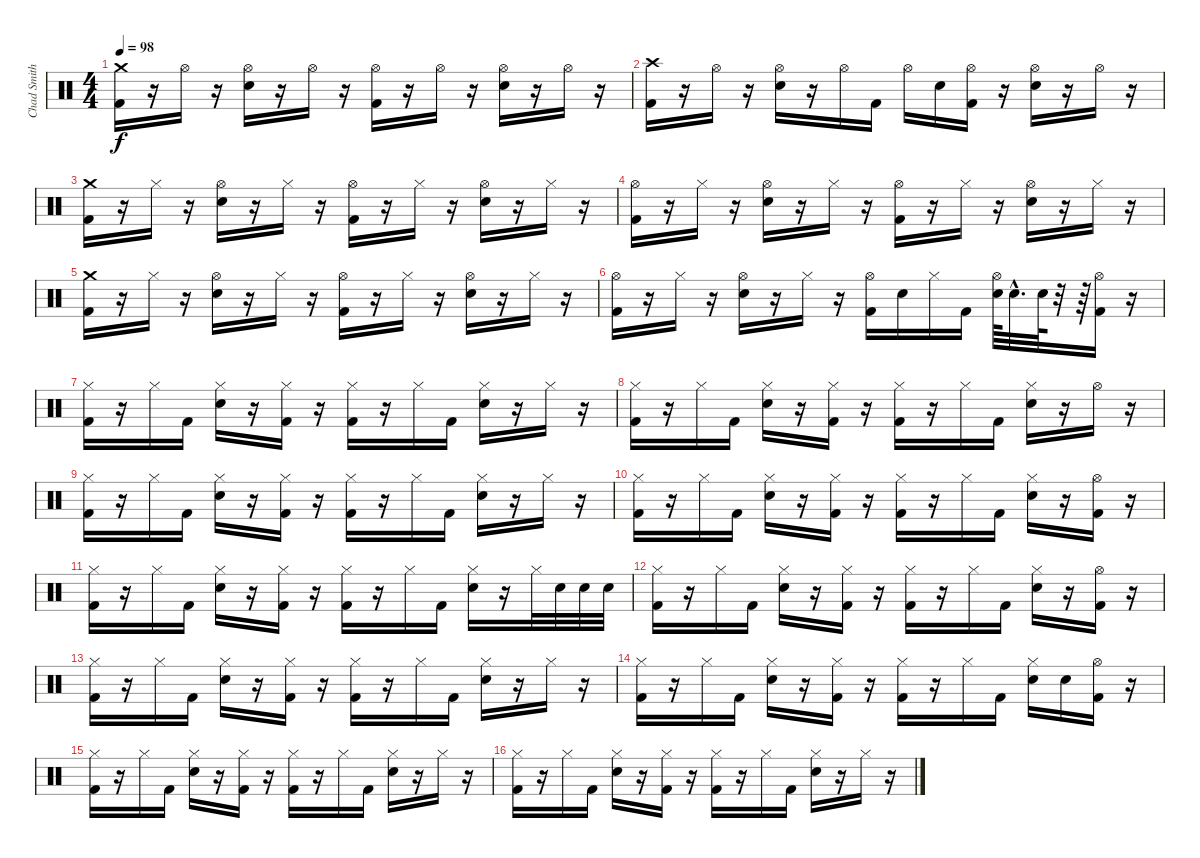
\track ("Chad Smith" "Chad Smith") {instrument percussion}
\staff {score}
\articulation defaults
\ts (4 4)
\tempo 98
\clef neutral
\ks c
("Kick (hit) 2" "Crash medium (hit)").16{dy f} r.16 "Hi-Hat (open)".16 r.16 ("Electric Snare (hit)" "Hi-Hat (open)").16 r.16 "Hi-Hat (open)".16 r.16 ("Kick (hit) 2" "Hi-Hat (open)").16 r.16 "Hi-Hat (open)".16 r.16 ("Hi-Hat (open)" "Electric Snare (hit)").16 r.16 "Hi-Hat (open)".16 r.16 |
("Crash high (hit)" "Kick (hit) 2").16 r.16 "Hi-Hat (open)".16 r.16 ("Hi-Hat (open)" "Electric Snare (hit)").16 r.16 "Hi-Hat (open)".16 "Kick (hit) 2".16 "Hi-Hat (open)".16 "Electric Snare (hit)".16 ("Hi-Hat (open)" "Kick (hit) 2").16 r.16 ("Hi-Hat (open)" "Electric Snare (hit)").16 r.16 "Hi-Hat (open)".16 r.16 |
("Kick (hit) 2" "Crash medium (hit)").16 r.16 "Hi-Hat (closed)".16 r.16 ("Electric Snare (hit)" "Hi-Hat (open)").16 r.16 "Hi-Hat (closed)".16 r.16 ("Kick (hit) 2" "Hi-Hat (open)").16 r.16 "Hi-Hat (closed)".16 r.16 ("Hi-Hat (open)" "Electric Snare (hit)").16 r.16 "Hi-Hat (closed)".16 r.16 |
("Hi-Hat (open)" "Kick (hit) 2").16 r.16 "Hi-Hat (closed)".16 r.16 ("Hi-Hat (open)" "Electric Snare (hit)").16 r.16 "Hi-Hat (closed)".16 r.16 ("Kick (hit) 2" "Hi-Hat (open)").16 r.16 "Hi-Hat (closed)".16 r.16 ("Hi-Hat (open)" "Electric Snare (hit)").16 r.16 "Hi-Hat (closed)".16 r.16 |
("Kick (hit) 2" "Crash medium (hit)").16 r.16 "Hi-Hat (closed)".16 r.16 ("Electric Snare (hit)" "Hi-Hat (open)").16 r.16 "Hi-Hat (closed)".16 r.16 ("Kick (hit) 2" "Hi-Hat (open)").16 r.16 "Hi-Hat (closed)".16 r.16 ("Hi-Hat (open)" "Electric Snare (hit)").16 r.16 "Hi-Hat (closed)".16 r.16 |
("Hi-Hat (open)" "Kick (hit) 2").16 r.16 "Hi-Hat (closed)".16 r.16 ("Hi-Hat (open)" "Electric Snare (hit)").16 r.16 "Hi-Hat (closed)".16 r.16 ("Kick (hit) 2" "Hi-Hat (open)").16 "Electric Snare (hit)".16 "Hi-Hat (closed)".16 "Kick (hit) 2".16 ("Hi-Hat (open)" "Electric Snare (hit)").64 "Electric Snare (hit)"{hac}.32{d} "Electric Snare (hit)".64 r.32 r.64 ("Kick (hit) 2" "Hi-Hat (open)").16 r.16 |
("Kick (hit) 2" "Hi-Hat (closed)").16 r.16 "Hi-Hat (closed)".16 "Kick (hit) 2".16 ("Electric Snare (hit)" "Hi-Hat (closed)").16 r.16 ("Kick (hit) 2" "Hi-Hat (closed)").16 r.16 ("Kick (hit) 2" "Hi-Hat (closed)").16 r.16 "Hi-Hat (closed)".16 "Kick (hit) 2".16 ("Electric Snare (hit)" "Hi-Hat (closed)").16 r.16 "Hi-Hat (closed)".16 r.16 |
("Hi-Hat (closed)" "Kick (hit) 2").16 r.16 "Hi-Hat (closed)".16 "Kick (hit) 2".16 ("Electric Snare (hit)" "Hi-Hat (closed)").16 r.16 ("Kick (hit) 2" "Hi-Hat (closed)").16 r.16 ("Kick (hit) 2" "Hi-Hat (closed)").16 r.16 "Hi-Hat (closed)".16 "Kick (hit) 2".16 ("Electric Snare (hit)" "Hi-Hat (closed)").16 r.16 "Hi-Hat (open)".16 r.16 |
("Kick (hit) 2" "Hi-Hat (closed)").16 r.16 "Hi-Hat (closed)".16 "Kick (hit) 2".16 ("Electric Snare (hit)" "Hi-Hat (closed)").16 r.16 ("Kick (hit) 2" "Hi-Hat (closed)").16 r.16 ("Kick (hit) 2" "Hi-Hat (closed)").16 r.16 "Hi-Hat (closed)".16 "Kick (hit) 2".16 ("Electric Snare (hit)" "Hi-Hat (closed)").16 r.16 "Hi-Hat (closed)".16 r.16 |
("Hi-Hat (closed)" "Kick (hit) 2").16 r.16 "Hi-Hat (closed)".16 "Kick (hit) 2".16 ("Electric Snare (hit)" "Hi-Hat (closed)").16 r.16 ("Kick (hit) 2" "Hi-Hat (closed)").16 r.16 ("Kick (hit) 2" "Hi-Hat (closed)").16 r.16 "Hi-Hat (closed)".16 "Kick (hit) 2".16 ("Electric Snare (hit)" "Hi-Hat (closed)").16 r.16 ("Kick (hit) 2" "Hi-Hat (open)").16 r.16 |
("Kick (hit) 2" "Hi-Hat (closed)").16 r.16 "Hi-Hat (closed)".16 "Kick (hit) 2".16 ("Electric Snare (hit)" "Hi-Hat (closed)").16 r.16 ("Kick (hit) 2" "Hi-Hat (closed)").16 r.16 ("Kick (hit) 2" "Hi-Hat (closed)").16 r.16 "Hi-Hat (closed)".16 "Kick (hit) 2".16 ("Electric Snare (hit)" "Hi-Hat (closed)").16 r.16 "Hi-Hat (closed)".32 "Electric Snare (hit)".32 "Electric Snare (hit)".32 "Electric Snare (hit)".32 |
("Hi-Hat (closed)" "Kick (hit) 2").16 r.16 "Hi-Hat (closed)".16 "Kick (hit) 2".16 ("Electric Snare (hit)" "Hi-Hat (closed)").16 r.16 ("Kick (hit) 2" "Hi-Hat (closed)").16 r.16 ("Kick (hit) 2" "Hi-Hat (closed)").16 r.16 "Hi-Hat (closed)".16 "Kick (hit) 2".16 ("Electric Snare (hit)" "Hi-Hat (closed)").16 r.16 ("Kick (hit) 2" "Hi-Hat (open)").16 r.16 |
("Kick (hit) 2" "Hi-Hat (closed)").16 r.16 "Hi-Hat (closed)".16 "Kick (hit) 2".16 ("Electric Snare (hit)" "Hi-Hat (closed)").16 r.16 ("Kick (hit) 2" "Hi-Hat (closed)").16 r.16 ("Kick (hit) 2" "Hi-Hat (closed)").16 r.16 "Hi-Hat (closed)".16 "Kick (hit) 2".16 ("Electric Snare (hit)" "Hi-Hat (closed)").16 r.16 "Hi-Hat (closed)".16 r.16 |
("Hi-Hat (closed)" "Kick (hit) 2").16 r.16 "Hi-Hat (closed)".16 "Kick (hit) 2".16 ("Electric Snare (hit)" "Hi-Hat (closed)").16 r.16 ("Kick (hit) 2" "Hi-Hat (closed)").16 r.16 ("Kick (hit) 2" "Hi-Hat (closed)").16 r.16 "Hi-Hat (closed)".16 "Kick (hit) 2".16 ("Electric Snare (hit)" "Hi-Hat (closed)").16 "Electric Snare (hit)".16 ("Kick (hit) 2" "Hi-Hat (open)").16 r.16 |
("Kick (hit) 2" "Hi-Hat (closed)").16 r.16 "Hi-Hat (closed)".16 "Kick (hit) 2".16 ("Electric Snare (hit)" "Hi-Hat (closed)").16 r.16 ("Kick (hit) 2" "Hi-Hat (closed)").16 r.16 ("Kick (hit) 2" "Hi-Hat (closed)").16 r.16 "Hi-Hat (closed)".16 "Kick (hit) 2".16 ("Electric Snare (hit)" "Hi-Hat (closed)").16 r.16 "Hi-Hat (closed)".16 r.16 |
("Hi-Hat (closed)" "Kick (hit) 2").16 r.16 "Hi-Hat (closed)".16 "Kick (hit) 2".16 ("Electric Snare (hit)" "Hi-Hat (closed)").16 r.16 ("Kick (hit) 2" "Hi-Hat (closed)").16 r.16 ("Kick (hit) 2" "Hi-Hat (closed)").16 r.16 "Hi-Hat (closed)".16 "Kick (hit) 2".16 ("Electric Snare (hit)" "Hi-Hat (closed)").16 r.16 "Hi-Hat (closed)".16 r.16
